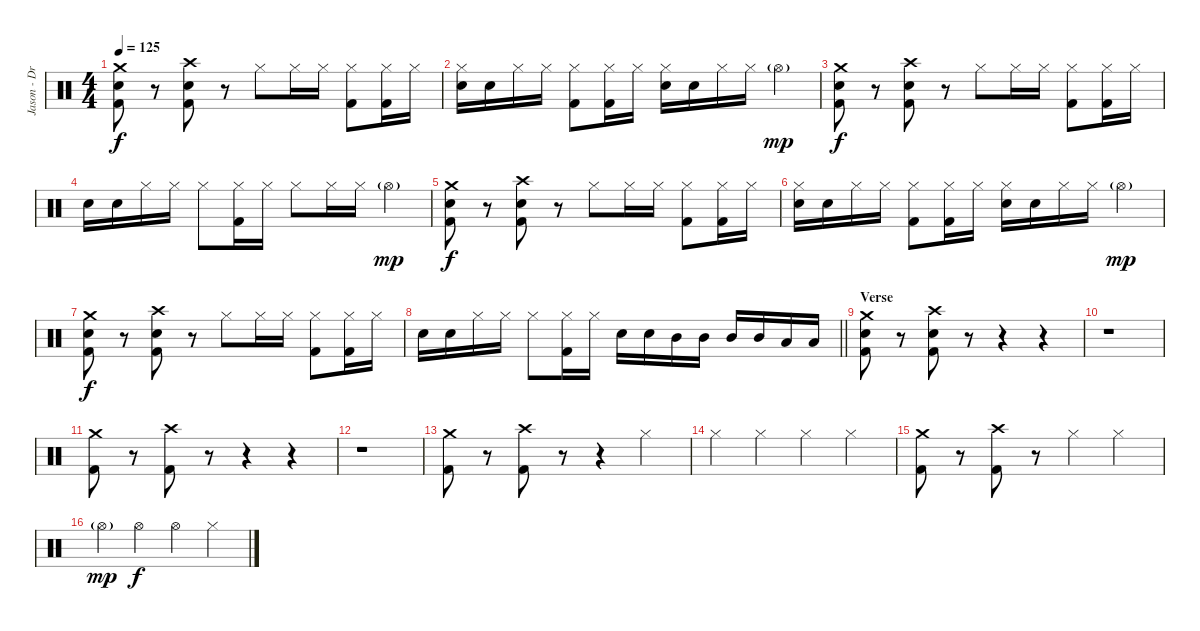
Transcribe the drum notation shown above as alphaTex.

\track ("Jason - Drums" "Jason - Dr") {instrument percussion}
\staff {score}
\articulation defaults
\ts (4 4)
\tempo 125
\clef neutral
\ks c
("Crash medium (hit)" "Electric Snare (hit)" "Kick (hit) 2").8{dy f} r.8 ("Crash high (hit)" "Electric Snare (hit)" "Kick (hit) 2").8 r.8 "Hi-Hat (closed)".8 "Hi-Hat (closed)".16 "Hi-Hat (closed)".16 ("Hi-Hat (closed)" "Kick (hit) 2").8 ("Hi-Hat (closed)" "Kick (hit) 2").16 "Hi-Hat (closed)".16 |
("Hi-Hat (closed)" "Electric Snare (hit)").16 "Electric Snare (hit)".16 "Hi-Hat (closed)".16 "Hi-Hat (closed)".16 ("Hi-Hat (closed)" "Kick (hit) 2").8 ("Hi-Hat (closed)" "Kick (hit) 2").16 "Hi-Hat (closed)".16 ("Hi-Hat (closed)" "Electric Snare (hit)").16 "Electric Snare (hit)".16 "Hi-Hat (closed)".16 "Hi-Hat (closed)".16 "Hi-Hat (open)"{g}.4{dy mp} |
("Crash medium (hit)" "Electric Snare (hit)" "Kick (hit) 2").8{dy f} r.8 ("Crash high (hit)" "Electric Snare (hit)" "Kick (hit) 2").8 r.8 "Hi-Hat (closed)".8 "Hi-Hat (closed)".16 "Hi-Hat (closed)".16 ("Hi-Hat (closed)" "Kick (hit) 2").8 ("Hi-Hat (closed)" "Kick (hit) 2").16 "Hi-Hat (closed)".16 |
"Electric Snare (hit)".16 "Electric Snare (hit)".16 "Hi-Hat (closed)".16 "Hi-Hat (closed)".16 "Hi-Hat (closed)".8 ("Hi-Hat (closed)" "Kick (hit) 2").16 "Hi-Hat (closed)".16 "Hi-Hat (closed)".8 "Hi-Hat (closed)".16 "Hi-Hat (closed)".16 "Hi-Hat (open)"{g}.4{dy mp} |
("Crash medium (hit)" "Electric Snare (hit)" "Kick (hit) 2").8{dy f} r.8 ("Crash high (hit)" "Electric Snare (hit)" "Kick (hit) 2").8 r.8 "Hi-Hat (closed)".8 "Hi-Hat (closed)".16 "Hi-Hat (closed)".16 ("Hi-Hat (closed)" "Kick (hit) 2").8 ("Hi-Hat (closed)" "Kick (hit) 2").16 "Hi-Hat (closed)".16 |
("Hi-Hat (closed)" "Electric Snare (hit)").16 "Electric Snare (hit)".16 "Hi-Hat (closed)".16 "Hi-Hat (closed)".16 ("Hi-Hat (closed)" "Kick (hit) 2").8 ("Hi-Hat (closed)" "Kick (hit) 2").16 "Hi-Hat (closed)".16 ("Hi-Hat (closed)" "Electric Snare (hit)").16 "Electric Snare (hit)".16 "Hi-Hat (closed)".16 "Hi-Hat (closed)".16 "Hi-Hat (open)"{g}.4{dy mp} |
("Crash medium (hit)" "Electric Snare (hit)" "Kick (hit) 2").8{dy f} r.8 ("Crash high (hit)" "Electric Snare (hit)" "Kick (hit) 2").8 r.8 "Hi-Hat (closed)".8 "Hi-Hat (closed)".16 "Hi-Hat (closed)".16 ("Hi-Hat (closed)" "Kick (hit) 2").8 ("Hi-Hat (closed)" "Kick (hit) 2").16 "Hi-Hat (closed)".16 |
\barLineRight lightlight "Electric Snare (hit)".16 "Electric Snare (hit)".16 "Hi-Hat (closed)".16 "Hi-Hat (closed)".16 "Hi-Hat (closed)".8
("Hi-Hat (closed)" "Kick (hit) 2").16 "Hi-Hat (closed)".16 "Electric Snare (hit)".16 "Electric Snare (hit)".16 "Mid Tom (hit)".16 "Mid Tom (hit)".16 "Mid Tom (hit)".16 "Mid Tom (hit)".16 "Low Tom (hit)".16 "Low Tom (hit)".16 |
\section ("" "Verse")
("Crash medium (hit)" "Electric Snare (hit)" "Kick (hit) 2").8 r.8 ("Crash high (hit)" "Electric Snare (hit)" "Kick (hit) 2").8 r.8 r.4 r.4 |
r.1 |
("Crash medium (hit)" "Kick (hit) 2").8 r.8 ("Crash high (hit)" "Kick (hit) 2").8 r.8 r.4 r.4 |
r.1 |
("Crash medium (hit)" "Kick (hit) 2").8 r.8 ("Crash high (hit)" "Kick (hit) 2").8 r.8 r.4 "Hi-Hat (closed)".4 |
"Hi-Hat (closed)".4 "Hi-Hat (closed)".4 "Hi-Hat (closed)".4 "Hi-Hat (closed)".4 |
("Crash medium (hit)" "Kick (hit) 2").8 r.8 ("Crash high (hit)" "Kick (hit) 2").8 r.8 "Hi-Hat (closed)".4 "Hi-Hat (closed)".4 |
"Hi-Hat (open)"{g}.4{dy mp} "Hi-Hat (open)".4{dy f} "Hi-Hat (open)".4 "Hi-Hat (closed)".4
